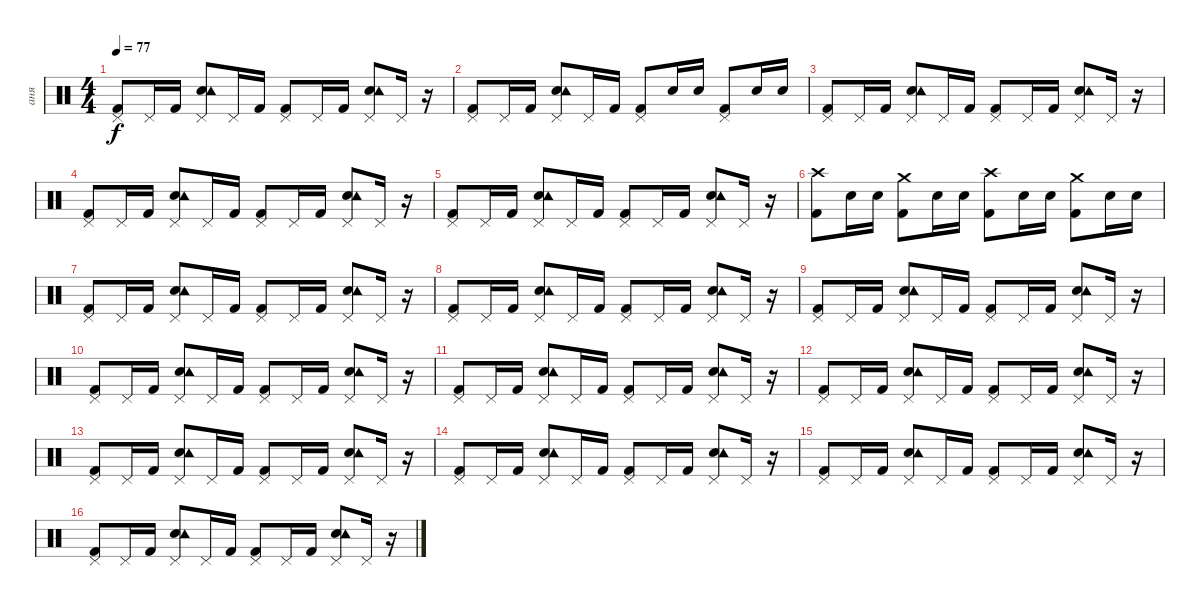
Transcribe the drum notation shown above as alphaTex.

\track ("аня" "аня") {instrument percussion}
\staff {score}
\articulation defaults
\ts (4 4)
\tempo 77
\clef neutral
\ks c
("Kick (hit) 2" "Pedal Hi-Hat (hit)").8{dy f} "Pedal Hi-Hat (hit)".16 "Kick (hit) 2".16 ("Snare (hit) 2" "Tambourine (hit)" "Pedal Hi-Hat (hit)").8 "Pedal Hi-Hat (hit)".16 "Kick (hit) 2".16 ("Kick (hit) 2" "Pedal Hi-Hat (hit)").8 "Pedal Hi-Hat (hit)".16 "Kick (hit) 2".16 ("Snare (hit) 2" "Tambourine (hit)" "Pedal Hi-Hat (hit)").8 "Pedal Hi-Hat (hit)".16 r.16 |
("Kick (hit) 2" "Pedal Hi-Hat (hit)").8 "Pedal Hi-Hat (hit)".16 "Kick (hit) 2".16 ("Snare (hit) 2" "Tambourine (hit)" "Pedal Hi-Hat (hit)").8 "Pedal Hi-Hat (hit)".16 "Kick (hit) 2".16 ("Kick (hit) 2" "Pedal Hi-Hat (hit)").8 "Snare (hit) 2".16 "Snare (hit) 2".16 ("Kick (hit) 2" "Pedal Hi-Hat (hit)").8 "Snare (hit) 2".16 "Snare (hit) 2".16 |
("Kick (hit) 2" "Pedal Hi-Hat (hit)").8 "Pedal Hi-Hat (hit)".16 "Kick (hit) 2".16 ("Snare (hit) 2" "Tambourine (hit)" "Pedal Hi-Hat (hit)").8 "Pedal Hi-Hat (hit)".16 "Kick (hit) 2".16 ("Kick (hit) 2" "Pedal Hi-Hat (hit)").8 "Pedal Hi-Hat (hit)".16 "Kick (hit) 2".16 ("Snare (hit) 2" "Tambourine (hit)" "Pedal Hi-Hat (hit)").8 "Pedal Hi-Hat (hit)".16 r.16 |
("Kick (hit) 2" "Pedal Hi-Hat (hit)").8 "Pedal Hi-Hat (hit)".16 "Kick (hit) 2".16 ("Snare (hit) 2" "Tambourine (hit)" "Pedal Hi-Hat (hit)").8 "Pedal Hi-Hat (hit)".16 "Kick (hit) 2".16 ("Kick (hit) 2" "Pedal Hi-Hat (hit)").8 "Pedal Hi-Hat (hit)".16 "Kick (hit) 2".16 ("Snare (hit) 2" "Tambourine (hit)" "Pedal Hi-Hat (hit)").8 "Pedal Hi-Hat (hit)".16 r.16 |
("Kick (hit) 2" "Pedal Hi-Hat (hit)").8 "Pedal Hi-Hat (hit)".16 "Kick (hit) 2".16 ("Snare (hit) 2" "Tambourine (hit)" "Pedal Hi-Hat (hit)").8 "Pedal Hi-Hat (hit)".16 "Kick (hit) 2".16 ("Kick (hit) 2" "Pedal Hi-Hat (hit)").8 "Pedal Hi-Hat (hit)".16 "Kick (hit) 2".16 ("Snare (hit) 2" "Tambourine (hit)" "Pedal Hi-Hat (hit)").8 "Pedal Hi-Hat (hit)".16 r.16 |
("Kick (hit) 2" "Crash high (hit)").8 "Snare (hit) 2".16 "Snare (hit) 2".16 ("Kick (hit) 2" "Crash medium (hit)").8 "Snare (hit) 2".16 "Snare (hit) 2".16 ("Kick (hit) 2" "Crash high (hit)").8 "Snare (hit) 2".16 "Snare (hit) 2".16 ("Kick (hit) 2" "Crash medium (hit)").8 "Snare (hit) 2".16 "Snare (hit) 2".16 |
("Kick (hit) 2" "Pedal Hi-Hat (hit)").8 "Pedal Hi-Hat (hit)".16 "Kick (hit) 2".16 ("Snare (hit) 2" "Tambourine (hit)" "Pedal Hi-Hat (hit)").8 "Pedal Hi-Hat (hit)".16 "Kick (hit) 2".16 ("Kick (hit) 2" "Pedal Hi-Hat (hit)").8 "Pedal Hi-Hat (hit)".16 "Kick (hit) 2".16 ("Snare (hit) 2" "Tambourine (hit)" "Pedal Hi-Hat (hit)").8 "Pedal Hi-Hat (hit)".16 r.16 |
("Kick (hit) 2" "Pedal Hi-Hat (hit)").8 "Pedal Hi-Hat (hit)".16 "Kick (hit) 2".16 ("Snare (hit) 2" "Tambourine (hit)" "Pedal Hi-Hat (hit)").8 "Pedal Hi-Hat (hit)".16 "Kick (hit) 2".16 ("Kick (hit) 2" "Pedal Hi-Hat (hit)").8 "Pedal Hi-Hat (hit)".16 "Kick (hit) 2".16 ("Snare (hit) 2" "Tambourine (hit)" "Pedal Hi-Hat (hit)").8 "Pedal Hi-Hat (hit)".16 r.16 |
("Kick (hit) 2" "Pedal Hi-Hat (hit)").8 "Pedal Hi-Hat (hit)".16 "Kick (hit) 2".16 ("Snare (hit) 2" "Tambourine (hit)" "Pedal Hi-Hat (hit)").8 "Pedal Hi-Hat (hit)".16 "Kick (hit) 2".16 ("Kick (hit) 2" "Pedal Hi-Hat (hit)").8 "Pedal Hi-Hat (hit)".16 "Kick (hit) 2".16 ("Snare (hit) 2" "Tambourine (hit)" "Pedal Hi-Hat (hit)").8 "Pedal Hi-Hat (hit)".16 r.16 |
("Kick (hit) 2" "Pedal Hi-Hat (hit)").8 "Pedal Hi-Hat (hit)".16 "Kick (hit) 2".16 ("Snare (hit) 2" "Tambourine (hit)" "Pedal Hi-Hat (hit)").8 "Pedal Hi-Hat (hit)".16 "Kick (hit) 2".16 ("Kick (hit) 2" "Pedal Hi-Hat (hit)").8 "Pedal Hi-Hat (hit)".16 "Kick (hit) 2".16 ("Snare (hit) 2" "Tambourine (hit)" "Pedal Hi-Hat (hit)").8 "Pedal Hi-Hat (hit)".16 r.16 |
("Kick (hit) 2" "Pedal Hi-Hat (hit)").8 "Pedal Hi-Hat (hit)".16 "Kick (hit) 2".16 ("Snare (hit) 2" "Tambourine (hit)" "Pedal Hi-Hat (hit)").8 "Pedal Hi-Hat (hit)".16 "Kick (hit) 2".16 ("Kick (hit) 2" "Pedal Hi-Hat (hit)").8 "Pedal Hi-Hat (hit)".16 "Kick (hit) 2".16 ("Snare (hit) 2" "Tambourine (hit)" "Pedal Hi-Hat (hit)").8 "Pedal Hi-Hat (hit)".16 r.16 |
("Kick (hit) 2" "Pedal Hi-Hat (hit)").8 "Pedal Hi-Hat (hit)".16 "Kick (hit) 2".16 ("Snare (hit) 2" "Tambourine (hit)" "Pedal Hi-Hat (hit)").8 "Pedal Hi-Hat (hit)".16 "Kick (hit) 2".16 ("Kick (hit) 2" "Pedal Hi-Hat (hit)").8 "Pedal Hi-Hat (hit)".16 "Kick (hit) 2".16 ("Snare (hit) 2" "Tambourine (hit)" "Pedal Hi-Hat (hit)").8 "Pedal Hi-Hat (hit)".16 r.16 |
("Kick (hit) 2" "Pedal Hi-Hat (hit)").8 "Pedal Hi-Hat (hit)".16 "Kick (hit) 2".16 ("Snare (hit) 2" "Tambourine (hit)" "Pedal Hi-Hat (hit)").8 "Pedal Hi-Hat (hit)".16 "Kick (hit) 2".16 ("Kick (hit) 2" "Pedal Hi-Hat (hit)").8 "Pedal Hi-Hat (hit)".16 "Kick (hit) 2".16 ("Snare (hit) 2" "Tambourine (hit)" "Pedal Hi-Hat (hit)").8 "Pedal Hi-Hat (hit)".16 r.16 |
("Kick (hit) 2" "Pedal Hi-Hat (hit)").8 "Pedal Hi-Hat (hit)".16 "Kick (hit) 2".16 ("Snare (hit) 2" "Tambourine (hit)" "Pedal Hi-Hat (hit)").8 "Pedal Hi-Hat (hit)".16 "Kick (hit) 2".16 ("Kick (hit) 2" "Pedal Hi-Hat (hit)").8 "Pedal Hi-Hat (hit)".16 "Kick (hit) 2".16 ("Snare (hit) 2" "Tambourine (hit)" "Pedal Hi-Hat (hit)").8 "Pedal Hi-Hat (hit)".16 r.16 |
("Kick (hit) 2" "Pedal Hi-Hat (hit)").8 "Pedal Hi-Hat (hit)".16 "Kick (hit) 2".16 ("Snare (hit) 2" "Tambourine (hit)" "Pedal Hi-Hat (hit)").8 "Pedal Hi-Hat (hit)".16 "Kick (hit) 2".16 ("Kick (hit) 2" "Pedal Hi-Hat (hit)").8 "Pedal Hi-Hat (hit)".16 "Kick (hit) 2".16 ("Snare (hit) 2" "Tambourine (hit)" "Pedal Hi-Hat (hit)").8 "Pedal Hi-Hat (hit)".16 r.16 |
("Kick (hit) 2" "Pedal Hi-Hat (hit)").8 "Pedal Hi-Hat (hit)".16 "Kick (hit) 2".16 ("Snare (hit) 2" "Tambourine (hit)" "Pedal Hi-Hat (hit)").8 "Pedal Hi-Hat (hit)".16 "Kick (hit) 2".16 ("Kick (hit) 2" "Pedal Hi-Hat (hit)").8 "Pedal Hi-Hat (hit)".16 "Kick (hit) 2".16 ("Snare (hit) 2" "Tambourine (hit)" "Pedal Hi-Hat (hit)").8 "Pedal Hi-Hat (hit)".16 r.16
